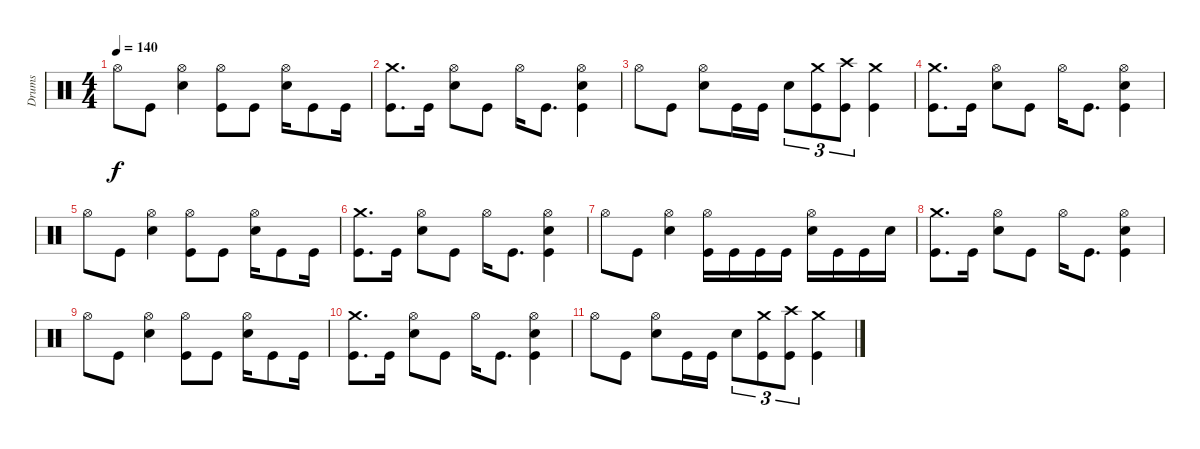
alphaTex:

\track ("Drums" "Drums") {instrument percussion}
\staff {score}
\articulation defaults
\ts (4 4)
\tempo 140
\clef neutral
\ks c "Hi-Hat (open)".8{dy f} "Kick (hit)".8
("Hi-Hat (open)" "Snare (hit) 2").4 ("Hi-Hat (open)" "Kick (hit)").8 "Kick (hit)".8 ("Hi-Hat (open)" "Snare (hit) 2").16 "Kick (hit)".8 "Kick (hit)".16 |
("Crash medium (hit)" "Kick (hit)").8{d} "Kick (hit)".16 ("Hi-Hat (open)" "Snare (hit) 2").8 "Kick (hit)".8 "Hi-Hat (open)".16 "Kick (hit)".8{d} ("Hi-Hat (open)" "Snare (hit) 2" "Kick (hit)").4 |
"Hi-Hat (open)".8 "Kick (hit)".8 ("Hi-Hat (open)" "Snare (hit) 2").8 "Kick (hit)".16 "Kick (hit)".16 "Snare (hit) 2".8{tu (3 2)} ("Crash medium (hit)" "Kick (hit)").8{tu (3 2)} ("Crash high (hit)" "Kick (hit)").8{tu (3 2)} ("Crash medium (hit)" "Kick (hit)").4 |
("Crash medium (hit)" "Kick (hit)").8{d} "Kick (hit)".16 ("Hi-Hat (open)" "Snare (hit) 2").8 "Kick (hit)".8 "Hi-Hat (open)".16 "Kick (hit)".8{d} ("Hi-Hat (open)" "Snare (hit) 2" "Kick (hit)").4 |
"Hi-Hat (open)".8 "Kick (hit)".8 ("Hi-Hat (open)" "Snare (hit) 2").4 ("Hi-Hat (open)" "Kick (hit)").8 "Kick (hit)".8 ("Hi-Hat (open)" "Snare (hit) 2").16 "Kick (hit)".8 "Kick (hit)".16 |
("Crash medium (hit)" "Kick (hit)").8{d} "Kick (hit)".16 ("Hi-Hat (open)" "Snare (hit) 2").8 "Kick (hit)".8 "Hi-Hat (open)".16 "Kick (hit)".8{d} ("Hi-Hat (open)" "Snare (hit) 2" "Kick (hit)").4 |
"Hi-Hat (open)".8 "Kick (hit)".8 ("Hi-Hat (open)" "Snare (hit) 2").4 ("Hi-Hat (open)" "Kick (hit)").16 "Kick (hit)".16 "Kick (hit)".16 "Kick (hit)".16 ("Hi-Hat (open)" "Snare (hit) 2").16 "Kick (hit)".16 "Kick (hit)".16 "Snare (hit) 2".16 |
("Crash medium (hit)" "Kick (hit)").8{d} "Kick (hit)".16 ("Hi-Hat (open)" "Snare (hit) 2").8 "Kick (hit)".8 "Hi-Hat (open)".16 "Kick (hit)".8{d} ("Hi-Hat (open)" "Snare (hit) 2" "Kick (hit)").4 |
"Hi-Hat (open)".8 "Kick (hit)".8 ("Hi-Hat (open)" "Snare (hit) 2").4 ("Hi-Hat (open)" "Kick (hit)").8 "Kick (hit)".8 ("Hi-Hat (open)" "Snare (hit) 2").16 "Kick (hit)".8 "Kick (hit)".16 |
("Crash medium (hit)" "Kick (hit)").8{d} "Kick (hit)".16 ("Hi-Hat (open)" "Snare (hit) 2").8 "Kick (hit)".8 "Hi-Hat (open)".16 "Kick (hit)".8{d} ("Hi-Hat (open)" "Snare (hit) 2" "Kick (hit)").4 |
"Hi-Hat (open)".8 "Kick (hit)".8 ("Hi-Hat (open)" "Snare (hit) 2").8 "Kick (hit)".16 "Kick (hit)".16 "Snare (hit) 2".8{tu (3 2)} ("Crash medium (hit)" "Kick (hit)").8{tu (3 2)} ("Crash high (hit)" "Kick (hit)").8{tu (3 2)} ("Crash medium (hit)" "Kick (hit)").4
